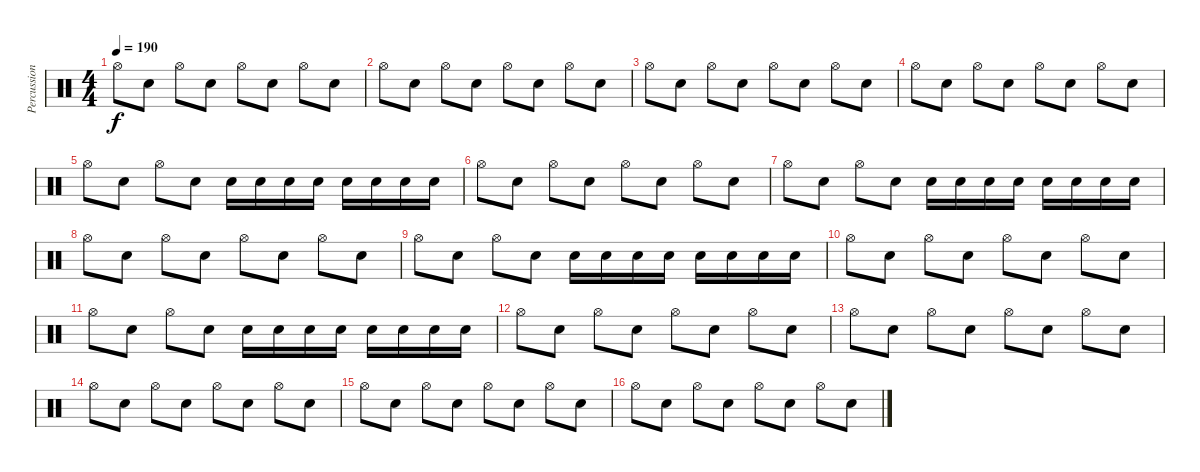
\track ("Percussions" "Percussion") {instrument percussion}
\staff {score}
\articulation defaults
\ts (4 4)
\tempo 190
\clef neutral
\ks c "Hi-Hat (open)".8{dy f} "Snare (hit) 2".8 "Hi-Hat (open)".8 "Snare (hit) 2".8 "Hi-Hat (open)".8 "Snare (hit) 2".8 "Hi-Hat (open)".8 "Snare (hit) 2".8
|
"Hi-Hat (open)".8 "Snare (hit) 2".8 "Hi-Hat (open)".8 "Snare (hit) 2".8 "Hi-Hat (open)".8 "Snare (hit) 2".8 "Hi-Hat (open)".8 "Snare (hit) 2".8 |
"Hi-Hat (open)".8 "Snare (hit) 2".8 "Hi-Hat (open)".8 "Snare (hit) 2".8 "Hi-Hat (open)".8 "Snare (hit) 2".8 "Hi-Hat (open)".8 "Snare (hit) 2".8 |
"Hi-Hat (open)".8 "Snare (hit) 2".8 "Hi-Hat (open)".8 "Snare (hit) 2".8 "Hi-Hat (open)".8 "Snare (hit) 2".8 "Hi-Hat (open)".8 "Snare (hit) 2".8 |
"Hi-Hat (open)".8 "Snare (hit) 2".8 "Hi-Hat (open)".8 "Snare (hit) 2".8 "Electric Snare (hit)".16 "Electric Snare (hit)".16 "Electric Snare (hit)".16 "Electric Snare (hit)".16 "Electric Snare (hit)".16 "Electric Snare (hit)".16 "Electric Snare (hit)".16 "Electric Snare (hit)".16 |
"Hi-Hat (open)".8 "Snare (hit) 2".8 "Hi-Hat (open)".8 "Snare (hit) 2".8 "Hi-Hat (open)".8 "Snare (hit) 2".8 "Hi-Hat (open)".8 "Snare (hit) 2".8 |
"Hi-Hat (open)".8 "Snare (hit) 2".8 "Hi-Hat (open)".8 "Snare (hit) 2".8 "Electric Snare (hit)".16 "Electric Snare (hit)".16 "Electric Snare (hit)".16 "Electric Snare (hit)".16 "Electric Snare (hit)".16 "Electric Snare (hit)".16 "Electric Snare (hit)".16 "Electric Snare (hit)".16 |
"Hi-Hat (open)".8 "Snare (hit) 2".8 "Hi-Hat (open)".8 "Snare (hit) 2".8 "Hi-Hat (open)".8 "Snare (hit) 2".8 "Hi-Hat (open)".8 "Snare (hit) 2".8 |
"Hi-Hat (open)".8 "Snare (hit) 2".8 "Hi-Hat (open)".8 "Snare (hit) 2".8 "Electric Snare (hit)".16 "Electric Snare (hit)".16 "Electric Snare (hit)".16 "Electric Snare (hit)".16 "Electric Snare (hit)".16 "Electric Snare (hit)".16 "Electric Snare (hit)".16 "Electric Snare (hit)".16 |
"Hi-Hat (open)".8 "Snare (hit) 2".8 "Hi-Hat (open)".8 "Snare (hit) 2".8 "Hi-Hat (open)".8 "Snare (hit) 2".8 "Hi-Hat (open)".8 "Snare (hit) 2".8 |
"Hi-Hat (open)".8 "Snare (hit) 2".8 "Hi-Hat (open)".8 "Snare (hit) 2".8 "Electric Snare (hit)".16 "Electric Snare (hit)".16 "Electric Snare (hit)".16 "Electric Snare (hit)".16 "Electric Snare (hit)".16 "Electric Snare (hit)".16 "Electric Snare (hit)".16 "Electric Snare (hit)".16 |
"Hi-Hat (open)".8 "Snare (hit) 2".8 "Hi-Hat (open)".8 "Snare (hit) 2".8 "Hi-Hat (open)".8 "Snare (hit) 2".8 "Hi-Hat (open)".8 "Snare (hit) 2".8 |
"Hi-Hat (open)".8 "Snare (hit) 2".8 "Hi-Hat (open)".8 "Snare (hit) 2".8 "Hi-Hat (open)".8 "Snare (hit) 2".8 "Hi-Hat (open)".8 "Snare (hit) 2".8 |
"Hi-Hat (open)".8 "Snare (hit) 2".8 "Hi-Hat (open)".8 "Snare (hit) 2".8 "Hi-Hat (open)".8 "Snare (hit) 2".8 "Hi-Hat (open)".8 "Snare (hit) 2".8 |
"Hi-Hat (open)".8 "Snare (hit) 2".8 "Hi-Hat (open)".8 "Snare (hit) 2".8 "Hi-Hat (open)".8 "Snare (hit) 2".8 "Hi-Hat (open)".8 "Snare (hit) 2".8 |
"Hi-Hat (open)".8 "Snare (hit) 2".8 "Hi-Hat (open)".8 "Snare (hit) 2".8 "Hi-Hat (open)".8 "Snare (hit) 2".8 "Hi-Hat (open)".8 "Snare (hit) 2".8
